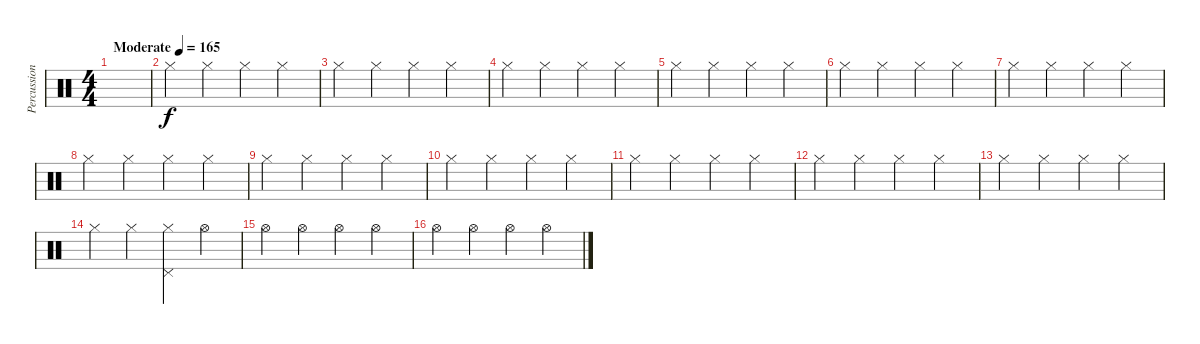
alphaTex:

\track ("Percussion" "Percussion") {instrument percussion}
\staff {score}
\articulation defaults
\ts (4 4)
\tempo (165 "Moderate")
\clef neutral
\ks c
|
"Hi-Hat (closed)".4 "Hi-Hat (closed)".4 "Hi-Hat (closed)".4 "Hi-Hat (closed)".4 |
"Hi-Hat (closed)".4 "Hi-Hat (closed)".4 "Hi-Hat (closed)".4 "Hi-Hat (closed)".4 |
"Hi-Hat (closed)".4 "Hi-Hat (closed)".4 "Hi-Hat (closed)".4 "Hi-Hat (closed)".4 |
"Hi-Hat (closed)".4 "Hi-Hat (closed)".4 "Hi-Hat (closed)".4 "Hi-Hat (closed)".4 |
"Hi-Hat (closed)".4 "Hi-Hat (closed)".4 "Hi-Hat (closed)".4 "Hi-Hat (closed)".4 |
"Hi-Hat (closed)".4 "Hi-Hat (closed)".4 "Hi-Hat (closed)".4 "Hi-Hat (closed)".4 |
"Hi-Hat (closed)".4 "Hi-Hat (closed)".4 "Hi-Hat (closed)".4 "Hi-Hat (closed)".4 |
"Hi-Hat (closed)".4 "Hi-Hat (closed)".4 "Hi-Hat (closed)".4 "Hi-Hat (closed)".4 |
"Hi-Hat (closed)".4 "Hi-Hat (closed)".4 "Hi-Hat (closed)".4 "Hi-Hat (closed)".4 |
"Hi-Hat (closed)".4 "Hi-Hat (closed)".4 "Hi-Hat (closed)".4 "Hi-Hat (closed)".4 |
"Hi-Hat (closed)".4 "Hi-Hat (closed)".4 "Hi-Hat (closed)".4 "Hi-Hat (closed)".4 |
"Hi-Hat (closed)".4 "Hi-Hat (closed)".4 "Hi-Hat (closed)".4 "Hi-Hat (closed)".4 |
"Hi-Hat (closed)".4 "Hi-Hat (closed)".4 ("Hi-Hat (closed)" "Pedal Hi-Hat (hit)").4 "Hi-Hat (open)".4 |
"Hi-Hat (open)".4 "Hi-Hat (open)".4 "Hi-Hat (open)".4 "Hi-Hat (open)".4 |
"Hi-Hat (open)".4 "Hi-Hat (open)".4 "Hi-Hat (open)".4 "Hi-Hat (open)".4
